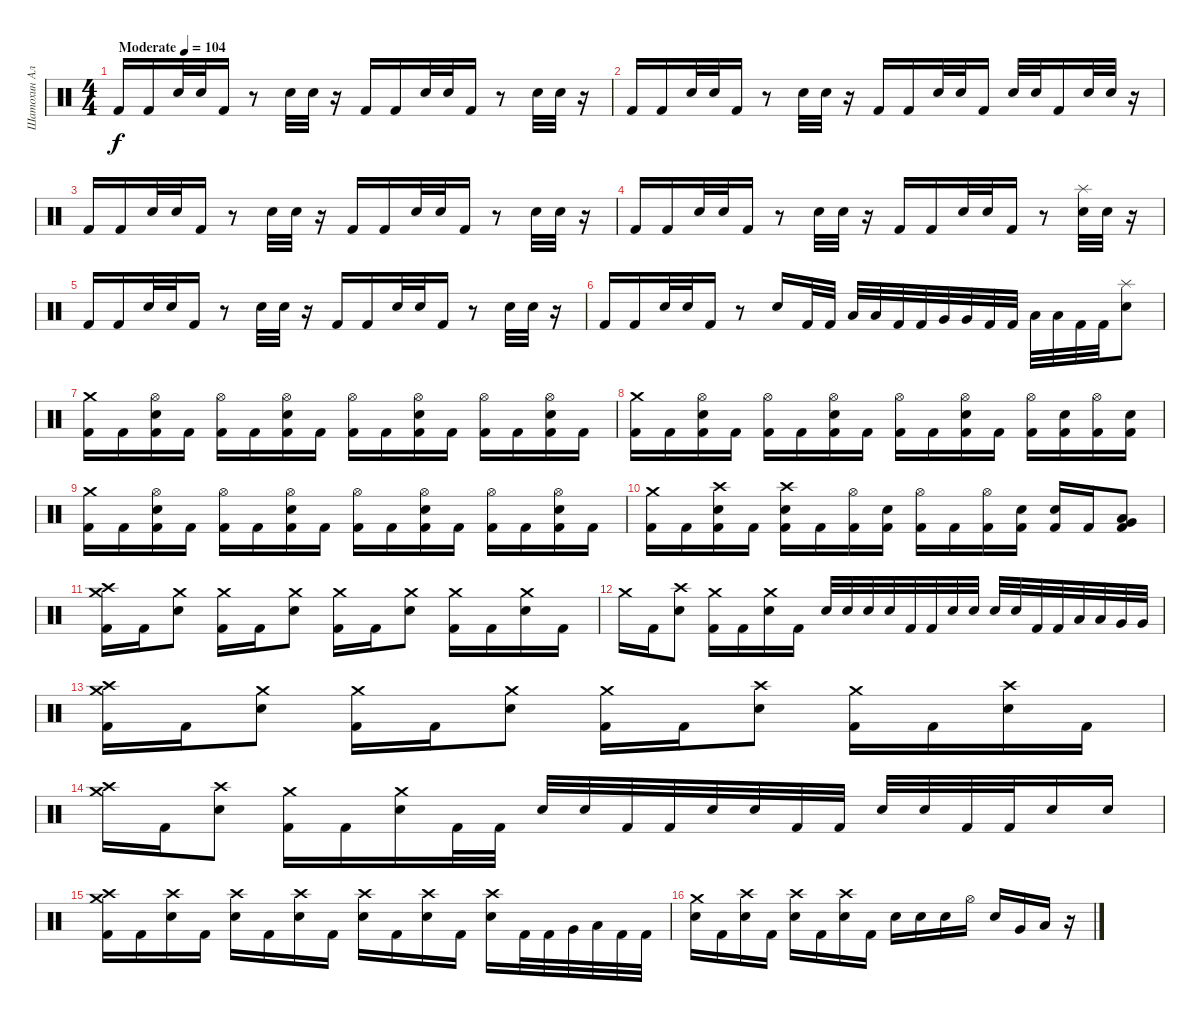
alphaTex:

\track ("Шатохин Алексей" "Шатохин Ал") {instrument percussion}
\staff {score}
\articulation defaults
\ts (4 4)
\tempo (104 "Moderate")
\clef neutral
\ks c "Kick (hit) 2".16{dy f} "Kick (hit) 2".16 "Electric Snare (hit)".32 "Electric Snare (hit)".32 "Kick (hit) 2".16
r.8 "Electric Snare (hit)".32 "Electric Snare (hit)".32 r.16 "Kick (hit) 2".16 "Kick (hit) 2".16 "Electric Snare (hit)".32 "Electric Snare (hit)".32 "Kick (hit) 2".16 r.8 "Electric Snare (hit)".32 "Electric Snare (hit)".32 r.16 |
"Kick (hit) 2".16 "Kick (hit) 2".16 "Electric Snare (hit)".32 "Electric Snare (hit)".32 "Kick (hit) 2".16 r.8 "Electric Snare (hit)".32 "Electric Snare (hit)".32 r.16 "Kick (hit) 2".16 "Kick (hit) 2".16 "Electric Snare (hit)".32 "Electric Snare (hit)".32 "Kick (hit) 2".16 "Electric Snare (hit)".32 "Electric Snare (hit)".32 "Kick (hit) 2".16 "Electric Snare (hit)".32 "Electric Snare (hit)".32 r.16 |
"Kick (hit) 2".16 "Kick (hit) 2".16 "Electric Snare (hit)".32 "Electric Snare (hit)".32 "Kick (hit) 2".16 r.8 "Electric Snare (hit)".32 "Electric Snare (hit)".32 r.16 "Kick (hit) 2".16 "Kick (hit) 2".16 "Electric Snare (hit)".32 "Electric Snare (hit)".32 "Kick (hit) 2".16 r.8 "Electric Snare (hit)".32 "Electric Snare (hit)".32 r.16 |
"Kick (hit) 2".16 "Kick (hit) 2".16 "Electric Snare (hit)".32 "Electric Snare (hit)".32 "Kick (hit) 2".16 r.8 "Electric Snare (hit)".32 "Electric Snare (hit)".32 r.16 "Kick (hit) 2".16 "Kick (hit) 2".16 "Electric Snare (hit)".32 "Electric Snare (hit)".32 "Kick (hit) 2".16 r.8 ("Splash (hit)" "Electric Snare (hit)").32 "Electric Snare (hit)".32 r.16 |
"Kick (hit) 2".16 "Kick (hit) 2".16 "Electric Snare (hit)".32 "Electric Snare (hit)".32 "Kick (hit) 2".16 r.8 "Electric Snare (hit)".32 "Electric Snare (hit)".32 r.16 "Kick (hit) 2".16 "Kick (hit) 2".16 "Electric Snare (hit)".32 "Electric Snare (hit)".32 "Kick (hit) 2".16 r.8 "Electric Snare (hit)".32 "Electric Snare (hit)".32 r.16 |
"Kick (hit) 2".16 "Kick (hit) 2".16 "Electric Snare (hit)".32 "Electric Snare (hit)".32 "Kick (hit) 2".16 r.8 "Electric Snare (hit)".16 "Kick (hit) 2".32 "Kick (hit) 2".32 "Low Tom (hit)".32 "Low Tom (hit)".32 "Kick (hit) 2".32 "Kick (hit) 2".32 "Very Low Tom (hit)".32 "Very Low Tom (hit)".32 "Kick (hit) 2".32 "Kick (hit) 2".32 "Low Floor Tom (hit)".32 "Low Floor Tom (hit)".32 "Kick (hit) 2".32 "Kick (hit) 2".32 ("Splash (hit)" "Electric Snare (hit)").8 |
("Crash medium (hit)" "Kick (hit) 2").16 "Kick (hit) 2".16 ("Hi-Hat (open)" "Electric Snare (hit)" "Kick (hit) 2").16 "Kick (hit) 2".16 ("Hi-Hat (open)" "Kick (hit) 2").16 "Kick (hit) 2".16 ("Hi-Hat (open)" "Electric Snare (hit)" "Kick (hit) 2").16 "Kick (hit) 2".16 ("Hi-Hat (open)" "Kick (hit) 2").16 "Kick (hit) 2".16 ("Hi-Hat (open)" "Electric Snare (hit)" "Kick (hit) 2").16 "Kick (hit) 2".16 ("Hi-Hat (open)" "Kick (hit) 2").16 "Kick (hit) 2".16 ("Hi-Hat (open)" "Electric Snare (hit)" "Kick (hit) 2").16 "Kick (hit) 2".16 |
("Crash medium (hit)" "Kick (hit) 2").16 "Kick (hit) 2".16 ("Hi-Hat (open)" "Electric Snare (hit)" "Kick (hit) 2").16 "Kick (hit) 2".16 ("Hi-Hat (open)" "Kick (hit) 2").16 "Kick (hit) 2".16 ("Hi-Hat (open)" "Electric Snare (hit)" "Kick (hit) 2").16 "Kick (hit) 2".16 ("Hi-Hat (open)" "Kick (hit) 2").16 "Kick (hit) 2".16 ("Hi-Hat (open)" "Electric Snare (hit)" "Kick (hit) 2").16 "Kick (hit) 2".16 ("Hi-Hat (open)" "Kick (hit) 2").16 ("Electric Snare (hit)" "Kick (hit) 2").16 ("Hi-Hat (open)" "Kick (hit) 2").16 ("Electric Snare (hit)" "Kick (hit) 2").16 |
("Crash medium (hit)" "Kick (hit) 2").16 "Kick (hit) 2".16 ("Hi-Hat (open)" "Electric Snare (hit)" "Kick (hit) 2").16 "Kick (hit) 2".16 ("Hi-Hat (open)" "Kick (hit) 2").16 "Kick (hit) 2".16 ("Hi-Hat (open)" "Electric Snare (hit)" "Kick (hit) 2").16 "Kick (hit) 2".16 ("Hi-Hat (open)" "Kick (hit) 2").16 "Kick (hit) 2".16 ("Hi-Hat (open)" "Electric Snare (hit)" "Kick (hit) 2").16 "Kick (hit) 2".16 ("Hi-Hat (open)" "Kick (hit) 2").16 "Kick (hit) 2".16 ("Hi-Hat (open)" "Electric Snare (hit)" "Kick (hit) 2").16 "Kick (hit) 2".16 |
("Crash medium (hit)" "Kick (hit) 2").16 "Kick (hit) 2".16 ("Crash high (hit)" "Electric Snare (hit)" "Kick (hit) 2").16 "Kick (hit) 2".16 ("Crash high (hit)" "Electric Snare (hit)" "Kick (hit) 2").16 "Kick (hit) 2".16 ("Hi-Hat (open)" "Kick (hit) 2").16 ("Electric Snare (hit)" "Kick (hit) 2").16 ("Hi-Hat (open)" "Kick (hit) 2").16 "Kick (hit) 2".16 ("Hi-Hat (open)" "Kick (hit) 2").16 ("Electric Snare (hit)" "Kick (hit) 2").16 ("Electric Snare (hit)" "Kick (hit) 2").16 "Kick (hit) 2".16 ("Very Low Tom (hit)" "Low Floor Tom (hit)" "Kick (hit) 2").8 |
("Crash high (hit)" "Crash medium (hit)" "Kick (hit) 2").16 "Kick (hit) 2".16 ("Crash medium (hit)" "Electric Snare (hit)").8 ("Crash medium (hit)" "Kick (hit) 2").16 "Kick (hit) 2".16 ("Crash medium (hit)" "Electric Snare (hit)").8 ("Crash medium (hit)" "Kick (hit) 2").16 "Kick (hit) 2".16 ("Crash medium (hit)" "Electric Snare (hit)").8 ("Crash medium (hit)" "Kick (hit) 2").16 "Kick (hit) 2".16 ("Crash medium (hit)" "Electric Snare (hit)").16 "Kick (hit) 2".16 |
"Crash medium (hit)".16 "Kick (hit) 2".16 ("Crash high (hit)" "Electric Snare (hit)").8 ("Crash medium (hit)" "Kick (hit) 2").16 "Kick (hit) 2".16 ("Crash medium (hit)" "Electric Snare (hit)").16 "Kick (hit) 2".16 "Electric Snare (hit)".32 "Electric Snare (hit)".32 "Electric Snare (hit)".32 "Electric Snare (hit)".32 "Kick (hit) 2".32 "Kick (hit) 2".32 "Electric Snare (hit)".32 "Electric Snare (hit)".32 "Electric Snare (hit)".32 "Electric Snare (hit)".32 "Kick (hit) 2".32 "Kick (hit) 2".32 "Low Tom (hit)".32 "Low Tom (hit)".32 "Very Low Tom (hit)".32 "Very Low Tom (hit)".32 |
("Crash high (hit)" "Crash medium (hit)" "Kick (hit) 2").16 "Kick (hit) 2".16 ("Crash medium (hit)" "Electric Snare (hit)").8 ("Crash medium (hit)" "Kick (hit) 2").16 "Kick (hit) 2".16 ("Crash medium (hit)" "Electric Snare (hit)").8 ("Crash medium (hit)" "Kick (hit) 2").16 "Kick (hit) 2".16 ("Crash high (hit)" "Electric Snare (hit)").8 ("Crash medium (hit)" "Kick (hit) 2").16 "Kick (hit) 2".16 ("Crash high (hit)" "Electric Snare (hit)").16 "Kick (hit) 2".16 |
("Crash high (hit)" "Crash medium (hit)").16 "Kick (hit) 2".16 ("Crash high (hit)" "Electric Snare (hit)").8 ("Crash medium (hit)" "Kick (hit) 2").16 "Kick (hit) 2".16 ("Crash medium (hit)" "Electric Snare (hit)").16 "Kick (hit) 2".32 "Kick (hit) 2".32 "Electric Snare (hit)".32 "Electric Snare (hit)".32 "Kick (hit) 2".32 "Kick (hit) 2".32 "Electric Snare (hit)".32 "Electric Snare (hit)".32 "Kick (hit) 2".32 "Kick (hit) 2".32 "Electric Snare (hit)".32 "Electric Snare (hit)".32 "Kick (hit) 2".32 "Kick (hit) 2".32 "Electric Snare (hit)".16 "Electric Snare (hit)".16 |
("Crash medium (hit)" "Crash high (hit)" "Kick (hit) 2").16 "Kick (hit) 2".16 ("Crash high (hit)" "Electric Snare (hit)").16 "Kick (hit) 2".16 ("Crash high (hit)" "Electric Snare (hit)").16 "Kick (hit) 2".16 ("Crash high (hit)" "Electric Snare (hit)").16 "Kick (hit) 2".16 ("Crash high (hit)" "Electric Snare (hit)").16 "Kick (hit) 2".16 ("Crash high (hit)" "Electric Snare (hit)").16 "Kick (hit) 2".16 ("Crash high (hit)" "Electric Snare (hit)").16 "Kick (hit) 2".32 "Kick (hit) 2".32 "Very Low Tom (hit)".32 "Low Tom (hit)".32 "Kick (hit) 2".32 "Kick (hit) 2".32 |
("Crash medium (hit)" "Electric Snare (hit)").16 "Kick (hit) 2".16 ("Crash high (hit)" "Electric Snare (hit)").16 "Kick (hit) 2".16 ("Crash high (hit)" "Electric Snare (hit)").16 "Kick (hit) 2".16 ("Crash high (hit)" "Electric Snare (hit)").16 "Kick (hit) 2".16 "Electric Snare (hit)".16 "Electric Snare (hit)".16 "Electric Snare (hit)".16 "Hi-Hat (open)".16 "Electric Snare (hit)".16 "Very Low Tom (hit)".16 "Low Floor Tom (hit)".16 r.16
